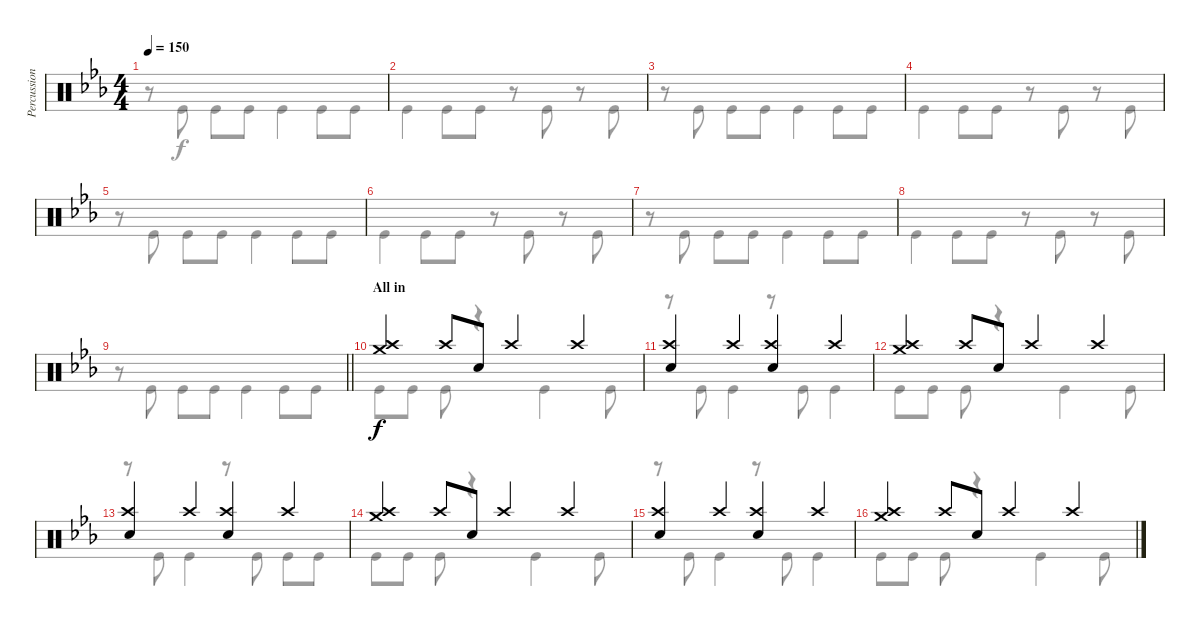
\track ("Percussion" "Percussion") {instrument percussion}
\staff {score}
\articulation defaults
\voice
\ts (4 4)
\tempo 150
\clef neutral
\ks cminor
|
|
|
|
|
|
|
|
\barLineRight lightlight
|
\section ("" "All in")
("Crash medium (hit)" "Crash high (hit)").4{volume 15} "Crash high (hit)".8 "Electric Snare (hit)".8 "Crash high (hit)".4 "Crash high (hit)".4 |
("Crash high (hit)" "Electric Snare (hit)").4 "Crash high (hit)".4 ("Crash high (hit)" "Electric Snare (hit)").4 "Crash high (hit)".4 |
("Crash medium (hit)" "Crash high (hit)").4 "Crash high (hit)".8 "Electric Snare (hit)".8 "Crash high (hit)".4 "Crash high (hit)".4 |
("Crash high (hit)" "Electric Snare (hit)").4 "Crash high (hit)".4 ("Crash high (hit)" "Electric Snare (hit)").4 "Crash high (hit)".4 |
("Crash medium (hit)" "Crash high (hit)").4 "Crash high (hit)".8 "Electric Snare (hit)".8 "Crash high (hit)".4 "Crash high (hit)".4 |
("Crash high (hit)" "Electric Snare (hit)").4 "Crash high (hit)".4 ("Crash high (hit)" "Electric Snare (hit)").4 "Crash high (hit)".4 |
("Crash medium (hit)" "Crash high (hit)").4 "Crash high (hit)".8 "Electric Snare (hit)".8 "Crash high (hit)".4 "Crash high (hit)".4
\voice
\clef neutral
\ottava regular
\simile none
\ks cminor
r.8{dy f} "Kick (hit)".8 "Kick (hit)".8 "Kick (hit)".8 "Kick (hit)".4 "Kick (hit)".8 "Kick (hit)".8 |
"Kick (hit)".4 "Kick (hit)".8 "Kick (hit)".8 r.8 "Kick (hit)".8 r.8 "Kick (hit)".8 |
r.8 "Kick (hit)".8 "Kick (hit)".8 "Kick (hit)".8 "Kick (hit)".4 "Kick (hit)".8 "Kick (hit)".8 |
"Kick (hit)".4 "Kick (hit)".8 "Kick (hit)".8 r.8 "Kick (hit)".8 r.8 "Kick (hit)".8 |
r.8 "Kick (hit)".8 "Kick (hit)".8 "Kick (hit)".8 "Kick (hit)".4 "Kick (hit)".8 "Kick (hit)".8 |
"Kick (hit)".4 "Kick (hit)".8 "Kick (hit)".8 r.8 "Kick (hit)".8 r.8 "Kick (hit)".8 |
r.8 "Kick (hit)".8 "Kick (hit)".8 "Kick (hit)".8 "Kick (hit)".4 "Kick (hit)".8 "Kick (hit)".8 |
"Kick (hit)".4 "Kick (hit)".8 "Kick (hit)".8 r.8 "Kick (hit)".8 r.8 "Kick (hit)".8 |
\barLineRight lightlight
r.8 "Kick (hit)".8 "Kick (hit)".8 "Kick (hit)".8 "Kick (hit)".4 "Kick (hit)".8 "Kick (hit)".8 |
"Kick (hit)".8 "Kick (hit)".8 "Kick (hit)".8 r.4 "Kick (hit)".4 "Kick (hit)".8 |
r.8 "Kick (hit)".8 "Kick (hit)".4 r.8 "Kick (hit)".8 "Kick (hit)".4 |
"Kick (hit)".8 "Kick (hit)".8 "Kick (hit)".8 r.4 "Kick (hit)".4 "Kick (hit)".8 |
r.8 "Kick (hit)".8 "Kick (hit)".4 r.8 "Kick (hit)".8 "Kick (hit)".8 "Kick (hit)".8 |
"Kick (hit)".8 "Kick (hit)".8 "Kick (hit)".8 r.4 "Kick (hit)".4 "Kick (hit)".8 |
r.8 "Kick (hit)".8 "Kick (hit)".4 r.8 "Kick (hit)".8 "Kick (hit)".4 |
"Kick (hit)".8 "Kick (hit)".8 "Kick (hit)".8 r.4 "Kick (hit)".4 "Kick (hit)".8
